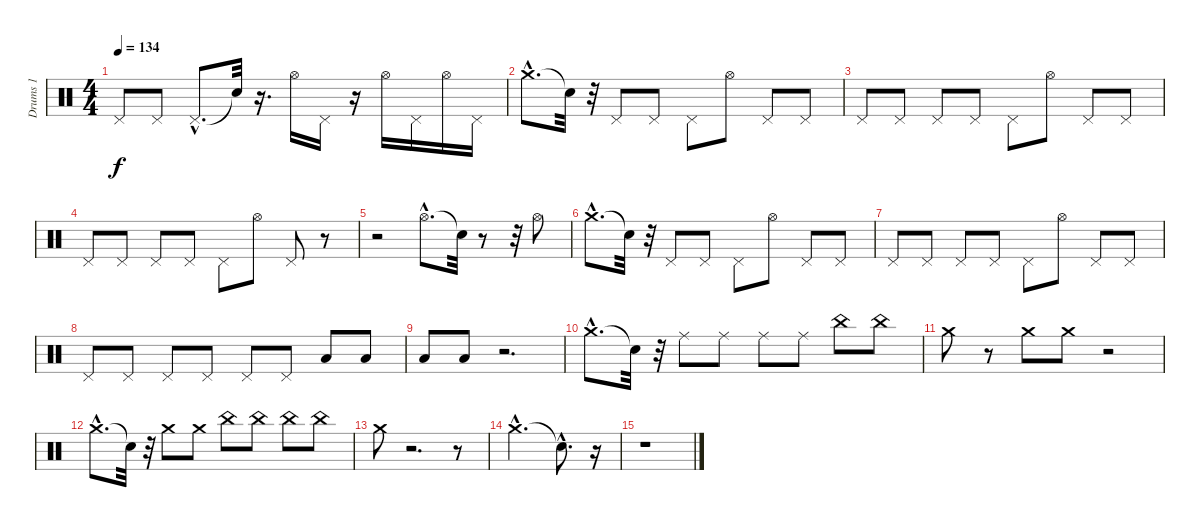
\track ("Drums 1" "Drums 1") {instrument percussion}
\staff {score}
\articulation defaults
\ts (4 4)
\tempo 134
\clef neutral
\ks c "Pedal Hi-Hat (hit)".8{dy f} "Pedal Hi-Hat (hit)".8 "Pedal Hi-Hat (hit)"{hac}.8{d} "Snare (hit)"{t}.32
r.16{d} "Hi-Hat (open)".16 "Pedal Hi-Hat (hit)".16 r.16 "Hi-Hat (open)".16 "Pedal Hi-Hat (hit)".16 "Hi-Hat (open)".16 "Pedal Hi-Hat (hit)".16 |
"Crash medium (hit)"{hac}.8{d} "Snare (hit)"{t}.32 r.32 "Pedal Hi-Hat (hit)".8 "Pedal Hi-Hat (hit)".8 "Pedal Hi-Hat (hit)".8 "Hi-Hat (open)".8 "Pedal Hi-Hat (hit)".8 "Pedal Hi-Hat (hit)".8 |
"Pedal Hi-Hat (hit)".8 "Pedal Hi-Hat (hit)".8 "Pedal Hi-Hat (hit)".8 "Pedal Hi-Hat (hit)".8 "Pedal Hi-Hat (hit)".8 "Hi-Hat (open)".8 "Pedal Hi-Hat (hit)".8 "Pedal Hi-Hat (hit)".8 |
"Pedal Hi-Hat (hit)".8 "Pedal Hi-Hat (hit)".8 "Pedal Hi-Hat (hit)".8 "Pedal Hi-Hat (hit)".8 "Pedal Hi-Hat (hit)".8 "Hi-Hat (open)".8 "Pedal Hi-Hat (hit)".8 r.8 |
r.2 "Hi-Hat (open)"{hac}.8{d} "Snare (hit)"{t}.32 r.8 r.32 "Hi-Hat (open)".8 |
"Crash medium (hit)"{hac}.8{d} "Snare (hit)"{t}.32 r.32 "Pedal Hi-Hat (hit)".8 "Pedal Hi-Hat (hit)".8 "Pedal Hi-Hat (hit)".8 "Hi-Hat (open)".8 "Pedal Hi-Hat (hit)".8 "Pedal Hi-Hat (hit)".8 |
"Pedal Hi-Hat (hit)".8 "Pedal Hi-Hat (hit)".8 "Pedal Hi-Hat (hit)".8 "Pedal Hi-Hat (hit)".8 "Pedal Hi-Hat (hit)".8 "Hi-Hat (open)".8 "Pedal Hi-Hat (hit)".8 "Pedal Hi-Hat (hit)".8 |
"Pedal Hi-Hat (hit)".8 "Pedal Hi-Hat (hit)".8 "Pedal Hi-Hat (hit)".8 "Pedal Hi-Hat (hit)".8 "Pedal Hi-Hat (hit)".8 "Pedal Hi-Hat (hit)".8 "Low Tom (hit)".8 "Low Tom (hit)".8 |
"Low Tom (hit)".8 "Low Tom (hit)".8 r.2{d} |
"Crash medium (hit)"{hac}.8{d} "Snare (hit)"{t}.32 r.32 "Ride (middle)".8 "Ride (middle)".8 "Ride (middle)".8 "Ride (middle)".8 "China (hit)".8 "China (hit)".8 |
"Crash medium (hit)".8 r.8 "Crash medium (hit)".8 "Crash medium (hit)".8 r.2 |
"Crash medium (hit)"{hac}.8{d} "Snare (hit)"{t}.32 r.32 "Crash medium (hit)".8 "Crash medium (hit)".8 "China (hit)".8 "China (hit)".8 "China (hit)".8 "China (hit)".8 |
"Crash medium (hit)".8 r.2{d} r.8 |
"Crash medium (hit)"{hac}.2{d} "Snare (hit)"{hac t}.8{d} r.16 |
r.1
